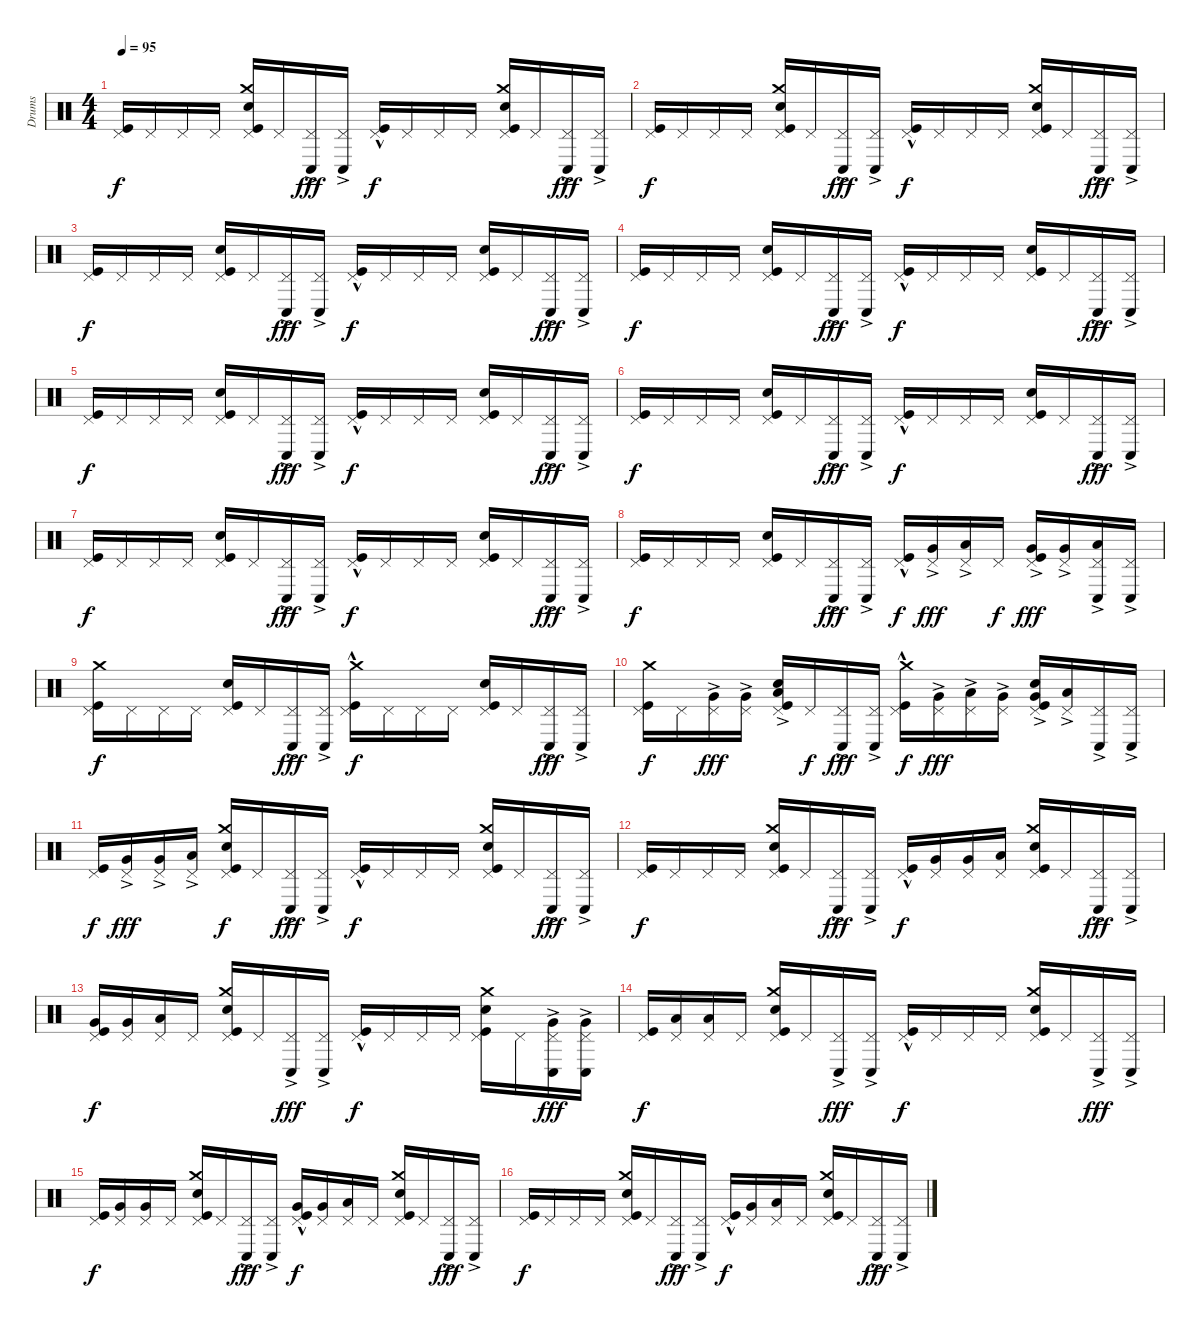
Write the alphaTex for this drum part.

\track ("Drums" "Drums") {instrument percussion}
\staff {score}
\articulation defaults
\ts (4 4)
\tempo 95
\clef neutral
\ks c
("Kick (hit)" "Pedal Hi-Hat (hit)").16{dy f} "Pedal Hi-Hat (hit)".16 "Pedal Hi-Hat (hit)".16 "Pedal Hi-Hat (hit)".16 ("Kick (hit)" "Snare (hit) 2" "Crash medium (hit)" "Pedal Hi-Hat (hit)").16 "Pedal Hi-Hat (hit)".16 ("Conga low (hit)"{ac} "Pedal Hi-Hat (hit)").16{dy fff} ("Conga low (hit)"{ac} "Pedal Hi-Hat (hit)").16 ("Kick (hit)" "Pedal Hi-Hat (hit)"{hac}).16{dy f} "Pedal Hi-Hat (hit)".16 "Pedal Hi-Hat (hit)".16 "Pedal Hi-Hat (hit)".16 ("Kick (hit)" "Snare (hit) 2" "Crash medium (hit)" "Pedal Hi-Hat (hit)").16 "Pedal Hi-Hat (hit)".16 ("Conga low (hit)"{ac} "Pedal Hi-Hat (hit)").16{dy fff} ("Conga low (hit)"{ac} "Pedal Hi-Hat (hit)").16 |
("Kick (hit)" "Pedal Hi-Hat (hit)").16{dy f} "Pedal Hi-Hat (hit)".16 "Pedal Hi-Hat (hit)".16 "Pedal Hi-Hat (hit)".16 ("Kick (hit)" "Snare (hit) 2" "Crash medium (hit)" "Pedal Hi-Hat (hit)").16 "Pedal Hi-Hat (hit)".16 ("Conga low (hit)"{ac} "Pedal Hi-Hat (hit)").16{dy fff} ("Conga low (hit)"{ac} "Pedal Hi-Hat (hit)").16 ("Kick (hit)" "Pedal Hi-Hat (hit)"{hac}).16{dy f} "Pedal Hi-Hat (hit)".16 "Pedal Hi-Hat (hit)".16 "Pedal Hi-Hat (hit)".16 ("Kick (hit)" "Snare (hit) 2" "Crash medium (hit)" "Pedal Hi-Hat (hit)").16 "Pedal Hi-Hat (hit)".16 ("Conga low (hit)"{ac} "Pedal Hi-Hat (hit)").16{dy fff} ("Conga low (hit)"{ac} "Pedal Hi-Hat (hit)").16 |
("Kick (hit)" "Pedal Hi-Hat (hit)").16{dy f} "Pedal Hi-Hat (hit)".16 "Pedal Hi-Hat (hit)".16 "Pedal Hi-Hat (hit)".16 ("Kick (hit)" "Snare (hit) 2" "Pedal Hi-Hat (hit)").16 "Pedal Hi-Hat (hit)".16 ("Conga low (hit)"{ac} "Pedal Hi-Hat (hit)").16{dy fff} ("Conga low (hit)"{ac} "Pedal Hi-Hat (hit)").16 ("Kick (hit)" "Pedal Hi-Hat (hit)"{hac}).16{dy f} "Pedal Hi-Hat (hit)".16 "Pedal Hi-Hat (hit)".16 "Pedal Hi-Hat (hit)".16 ("Kick (hit)" "Snare (hit) 2" "Pedal Hi-Hat (hit)").16 "Pedal Hi-Hat (hit)".16 ("Conga low (hit)"{ac} "Pedal Hi-Hat (hit)").16{dy fff} ("Conga low (hit)"{ac} "Pedal Hi-Hat (hit)").16 |
("Kick (hit)" "Pedal Hi-Hat (hit)").16{dy f} "Pedal Hi-Hat (hit)".16 "Pedal Hi-Hat (hit)".16 "Pedal Hi-Hat (hit)".16 ("Kick (hit)" "Snare (hit) 2" "Pedal Hi-Hat (hit)").16 "Pedal Hi-Hat (hit)".16 ("Conga low (hit)"{ac} "Pedal Hi-Hat (hit)").16{dy fff} ("Conga low (hit)"{ac} "Pedal Hi-Hat (hit)").16 ("Kick (hit)" "Pedal Hi-Hat (hit)"{hac}).16{dy f} "Pedal Hi-Hat (hit)".16 "Pedal Hi-Hat (hit)".16 "Pedal Hi-Hat (hit)".16 ("Kick (hit)" "Snare (hit) 2" "Pedal Hi-Hat (hit)").16 "Pedal Hi-Hat (hit)".16 ("Conga low (hit)"{ac} "Pedal Hi-Hat (hit)").16{dy fff} ("Conga low (hit)"{ac} "Pedal Hi-Hat (hit)").16 |
("Kick (hit)" "Pedal Hi-Hat (hit)").16{dy f} "Pedal Hi-Hat (hit)".16 "Pedal Hi-Hat (hit)".16 "Pedal Hi-Hat (hit)".16 ("Kick (hit)" "Snare (hit) 2" "Pedal Hi-Hat (hit)").16 "Pedal Hi-Hat (hit)".16 ("Conga low (hit)"{ac} "Pedal Hi-Hat (hit)").16{dy fff} ("Conga low (hit)"{ac} "Pedal Hi-Hat (hit)").16 ("Kick (hit)" "Pedal Hi-Hat (hit)"{hac}).16{dy f} "Pedal Hi-Hat (hit)".16 "Pedal Hi-Hat (hit)".16 "Pedal Hi-Hat (hit)".16 ("Kick (hit)" "Snare (hit) 2" "Pedal Hi-Hat (hit)").16 "Pedal Hi-Hat (hit)".16 ("Conga low (hit)"{ac} "Pedal Hi-Hat (hit)").16{dy fff} ("Conga low (hit)"{ac} "Pedal Hi-Hat (hit)").16 |
("Kick (hit)" "Pedal Hi-Hat (hit)").16{dy f} "Pedal Hi-Hat (hit)".16 "Pedal Hi-Hat (hit)".16 "Pedal Hi-Hat (hit)".16 ("Kick (hit)" "Snare (hit) 2" "Pedal Hi-Hat (hit)").16 "Pedal Hi-Hat (hit)".16 ("Conga low (hit)"{ac} "Pedal Hi-Hat (hit)").16{dy fff} ("Conga low (hit)"{ac} "Pedal Hi-Hat (hit)").16 ("Kick (hit)" "Pedal Hi-Hat (hit)"{hac}).16{dy f} "Pedal Hi-Hat (hit)".16 "Pedal Hi-Hat (hit)".16 "Pedal Hi-Hat (hit)".16 ("Kick (hit)" "Snare (hit) 2" "Pedal Hi-Hat (hit)").16 "Pedal Hi-Hat (hit)".16 ("Conga low (hit)"{ac} "Pedal Hi-Hat (hit)").16{dy fff} ("Conga low (hit)"{ac} "Pedal Hi-Hat (hit)").16 |
("Kick (hit)" "Pedal Hi-Hat (hit)").16{dy f} "Pedal Hi-Hat (hit)".16 "Pedal Hi-Hat (hit)".16 "Pedal Hi-Hat (hit)".16 ("Kick (hit)" "Snare (hit) 2" "Pedal Hi-Hat (hit)").16 "Pedal Hi-Hat (hit)".16 ("Conga low (hit)"{ac} "Pedal Hi-Hat (hit)").16{dy fff} ("Conga low (hit)"{ac} "Pedal Hi-Hat (hit)").16 ("Kick (hit)" "Pedal Hi-Hat (hit)"{hac}).16{dy f} "Pedal Hi-Hat (hit)".16 "Pedal Hi-Hat (hit)".16 "Pedal Hi-Hat (hit)".16 ("Kick (hit)" "Snare (hit) 2" "Pedal Hi-Hat (hit)").16 "Pedal Hi-Hat (hit)".16 ("Conga low (hit)"{ac} "Pedal Hi-Hat (hit)").16{dy fff} ("Conga low (hit)"{ac} "Pedal Hi-Hat (hit)").16 |
("Kick (hit)" "Pedal Hi-Hat (hit)").16{dy f} "Pedal Hi-Hat (hit)".16 "Pedal Hi-Hat (hit)".16 "Pedal Hi-Hat (hit)".16 ("Kick (hit)" "Snare (hit) 2" "Pedal Hi-Hat (hit)").16 "Pedal Hi-Hat (hit)".16 ("Conga low (hit)"{ac} "Pedal Hi-Hat (hit)").16{dy fff} ("Conga low (hit)"{ac} "Pedal Hi-Hat (hit)").16 ("Kick (hit)" "Pedal Hi-Hat (hit)"{hac}).16{dy f} ("Very Low Tom (hit)"{ac} "Pedal Hi-Hat (hit)").16{dy fff} ("Low Floor Tom (hit)"{ac} "Pedal Hi-Hat (hit)").16 "Pedal Hi-Hat (hit)".16{dy f} ("Kick (hit)" "Very Low Tom (hit)"{ac} "Pedal Hi-Hat (hit)").16{dy fff} ("Very Low Tom (hit)"{ac} "Pedal Hi-Hat (hit)").16 ("Conga low (hit)"{ac} "Low Floor Tom (hit)"{ac} "Pedal Hi-Hat (hit)").16 ("Conga low (hit)"{ac} "Pedal Hi-Hat (hit)").16 |
("Kick (hit)" "Crash medium (hit)" "Pedal Hi-Hat (hit)").16{dy f} "Pedal Hi-Hat (hit)".16 "Pedal Hi-Hat (hit)".16 "Pedal Hi-Hat (hit)".16 ("Kick (hit)" "Snare (hit) 2" "Pedal Hi-Hat (hit)").16 "Pedal Hi-Hat (hit)".16 ("Conga low (hit)"{ac} "Pedal Hi-Hat (hit)").16{dy fff} ("Conga low (hit)"{ac} "Pedal Hi-Hat (hit)").16 ("Kick (hit)" "Crash medium (hit)" "Pedal Hi-Hat (hit)"{hac}).16{dy f} "Pedal Hi-Hat (hit)".16 "Pedal Hi-Hat (hit)".16 "Pedal Hi-Hat (hit)".16 ("Kick (hit)" "Snare (hit) 2" "Pedal Hi-Hat (hit)").16 "Pedal Hi-Hat (hit)".16 ("Conga low (hit)"{ac} "Pedal Hi-Hat (hit)").16{dy fff} ("Conga low (hit)"{ac} "Pedal Hi-Hat (hit)").16 |
("Kick (hit)" "Crash medium (hit)" "Pedal Hi-Hat (hit)").16{dy f} "Pedal Hi-Hat (hit)".16 ("Very Low Tom (hit)"{ac} "Pedal Hi-Hat (hit)").16{dy fff} ("Very Low Tom (hit)"{ac} "Pedal Hi-Hat (hit)").16 ("Kick (hit)" "Snare (hit) 2" "Low Floor Tom (hit)"{ac} "Pedal Hi-Hat (hit)").16 "Pedal Hi-Hat (hit)".16{dy f} ("Conga low (hit)"{ac} "Pedal Hi-Hat (hit)").16{dy fff} ("Conga low (hit)"{ac} "Pedal Hi-Hat (hit)").16 ("Kick (hit)" "Crash medium (hit)" "Pedal Hi-Hat (hit)"{hac}).16{dy f} ("Very Low Tom (hit)"{ac} "Pedal Hi-Hat (hit)").16{dy fff} ("Low Floor Tom (hit)"{ac} "Pedal Hi-Hat (hit)").16 ("Very Low Tom (hit)"{ac} "Pedal Hi-Hat (hit)").16 ("Kick (hit)" "Snare (hit) 2" "Very Low Tom (hit)"{ac} "Pedal Hi-Hat (hit)").16 ("Low Floor Tom (hit)"{ac} "Pedal Hi-Hat (hit)").16 ("Conga low (hit)"{ac} "Pedal Hi-Hat (hit)").16 ("Conga low (hit)"{ac} "Pedal Hi-Hat (hit)").16 |
("Kick (hit)" "Pedal Hi-Hat (hit)").16{dy f} ("Very Low Tom (hit)"{ac} "Pedal Hi-Hat (hit)").16{dy fff} ("Very Low Tom (hit)"{ac} "Pedal Hi-Hat (hit)").16 ("Low Floor Tom (hit)"{ac} "Pedal Hi-Hat (hit)").16 ("Kick (hit)" "Snare (hit) 2" "Crash medium (hit)" "Pedal Hi-Hat (hit)").16{dy f} "Pedal Hi-Hat (hit)".16 ("Conga low (hit)"{ac} "Pedal Hi-Hat (hit)").16{dy fff} ("Conga low (hit)"{ac} "Pedal Hi-Hat (hit)").16 ("Kick (hit)" "Pedal Hi-Hat (hit)"{hac}).16{dy f} "Pedal Hi-Hat (hit)".16 "Pedal Hi-Hat (hit)".16 "Pedal Hi-Hat (hit)".16 ("Kick (hit)" "Snare (hit) 2" "Crash medium (hit)" "Pedal Hi-Hat (hit)").16 "Pedal Hi-Hat (hit)".16 ("Conga low (hit)"{ac} "Pedal Hi-Hat (hit)").16{dy fff} ("Conga low (hit)"{ac} "Pedal Hi-Hat (hit)").16 |
("Kick (hit)" "Pedal Hi-Hat (hit)").16{dy f} "Pedal Hi-Hat (hit)".16 "Pedal Hi-Hat (hit)".16 "Pedal Hi-Hat (hit)".16 ("Kick (hit)" "Snare (hit) 2" "Crash medium (hit)" "Pedal Hi-Hat (hit)").16 "Pedal Hi-Hat (hit)".16 ("Conga low (hit)"{ac} "Pedal Hi-Hat (hit)").16{dy fff} ("Conga low (hit)"{ac} "Pedal Hi-Hat (hit)").16 ("Kick (hit)" "Pedal Hi-Hat (hit)"{hac}).16{dy f} ("Very Low Tom (hit)" "Pedal Hi-Hat (hit)").16 ("Very Low Tom (hit)" "Pedal Hi-Hat (hit)").16 ("Low Floor Tom (hit)" "Pedal Hi-Hat (hit)").16 ("Kick (hit)" "Snare (hit) 2" "Crash medium (hit)" "Pedal Hi-Hat (hit)").16 "Pedal Hi-Hat (hit)".16 ("Conga low (hit)"{ac} "Pedal Hi-Hat (hit)").16{dy fff} ("Conga low (hit)"{ac} "Pedal Hi-Hat (hit)").16 |
("Kick (hit)" "Very Low Tom (hit)" "Pedal Hi-Hat (hit)").16{dy f} ("Very Low Tom (hit)" "Pedal Hi-Hat (hit)").16 ("Low Floor Tom (hit)" "Pedal Hi-Hat (hit)").16 "Pedal Hi-Hat (hit)".16 ("Kick (hit)" "Snare (hit) 2" "Crash medium (hit)" "Pedal Hi-Hat (hit)").16 "Pedal Hi-Hat (hit)".16 ("Conga low (hit)"{ac} "Pedal Hi-Hat (hit)").16{dy fff} ("Conga low (hit)"{ac} "Pedal Hi-Hat (hit)").16 ("Kick (hit)" "Pedal Hi-Hat (hit)"{hac}).16{dy f} "Pedal Hi-Hat (hit)".16 "Pedal Hi-Hat (hit)".16 "Pedal Hi-Hat (hit)".16 ("Kick (hit)" "Snare (hit) 2" "Crash medium (hit)" "Pedal Hi-Hat (hit)").16 "Pedal Hi-Hat (hit)".16 ("Conga low (hit)"{ac} "Very Low Tom (hit)" "Pedal Hi-Hat (hit)").16{dy fff} ("Conga low (hit)"{ac} "Very Low Tom (hit)" "Pedal Hi-Hat (hit)").16 |
("Kick (hit)" "Pedal Hi-Hat (hit)").16{dy f} ("Low Floor Tom (hit)" "Pedal Hi-Hat (hit)").16 ("Low Floor Tom (hit)" "Pedal Hi-Hat (hit)").16 "Pedal Hi-Hat (hit)".16 ("Kick (hit)" "Snare (hit) 2" "Crash medium (hit)" "Pedal Hi-Hat (hit)").16 "Pedal Hi-Hat (hit)".16 ("Conga low (hit)"{ac} "Pedal Hi-Hat (hit)").16{dy fff} ("Conga low (hit)"{ac} "Pedal Hi-Hat (hit)").16 ("Kick (hit)" "Pedal Hi-Hat (hit)"{hac}).16{dy f} "Pedal Hi-Hat (hit)".16 "Pedal Hi-Hat (hit)".16 "Pedal Hi-Hat (hit)".16 ("Kick (hit)" "Snare (hit) 2" "Crash medium (hit)" "Pedal Hi-Hat (hit)").16 "Pedal Hi-Hat (hit)".16 ("Conga low (hit)"{ac} "Pedal Hi-Hat (hit)").16{dy fff} ("Conga low (hit)"{ac} "Pedal Hi-Hat (hit)").16 |
("Kick (hit)" "Pedal Hi-Hat (hit)").16{dy f} ("Very Low Tom (hit)" "Pedal Hi-Hat (hit)").16 ("Very Low Tom (hit)" "Pedal Hi-Hat (hit)").16 "Pedal Hi-Hat (hit)".16 ("Kick (hit)" "Snare (hit) 2" "Crash medium (hit)" "Pedal Hi-Hat (hit)").16 "Pedal Hi-Hat (hit)".16 ("Conga low (hit)"{ac} "Pedal Hi-Hat (hit)").16{dy fff} ("Conga low (hit)"{ac} "Pedal Hi-Hat (hit)").16 ("Kick (hit)" "Very Low Tom (hit)" "Pedal Hi-Hat (hit)"{hac}).16{dy f} ("Very Low Tom (hit)" "Pedal Hi-Hat (hit)").16 ("Low Floor Tom (hit)" "Pedal Hi-Hat (hit)").16 "Pedal Hi-Hat (hit)".16 ("Kick (hit)" "Snare (hit) 2" "Crash medium (hit)" "Pedal Hi-Hat (hit)").16 "Pedal Hi-Hat (hit)".16 ("Conga low (hit)"{ac} "Pedal Hi-Hat (hit)").16{dy fff} ("Conga low (hit)"{ac} "Pedal Hi-Hat (hit)").16 |
("Kick (hit)" "Pedal Hi-Hat (hit)").16{dy f} "Pedal Hi-Hat (hit)".16 "Pedal Hi-Hat (hit)".16 "Pedal Hi-Hat (hit)".16 ("Kick (hit)" "Snare (hit) 2" "Crash medium (hit)" "Pedal Hi-Hat (hit)").16 "Pedal Hi-Hat (hit)".16 ("Conga low (hit)"{ac} "Pedal Hi-Hat (hit)").16{dy fff} ("Conga low (hit)"{ac} "Pedal Hi-Hat (hit)").16 ("Kick (hit)" "Pedal Hi-Hat (hit)"{hac}).16{dy f} ("Very Low Tom (hit)" "Pedal Hi-Hat (hit)").16 ("Low Floor Tom (hit)" "Pedal Hi-Hat (hit)").16 "Pedal Hi-Hat (hit)".16 ("Kick (hit)" "Snare (hit) 2" "Crash medium (hit)" "Pedal Hi-Hat (hit)").16 "Pedal Hi-Hat (hit)".16 ("Conga low (hit)"{ac} "Pedal Hi-Hat (hit)").16{dy fff} ("Conga low (hit)"{ac} "Pedal Hi-Hat (hit)").16
